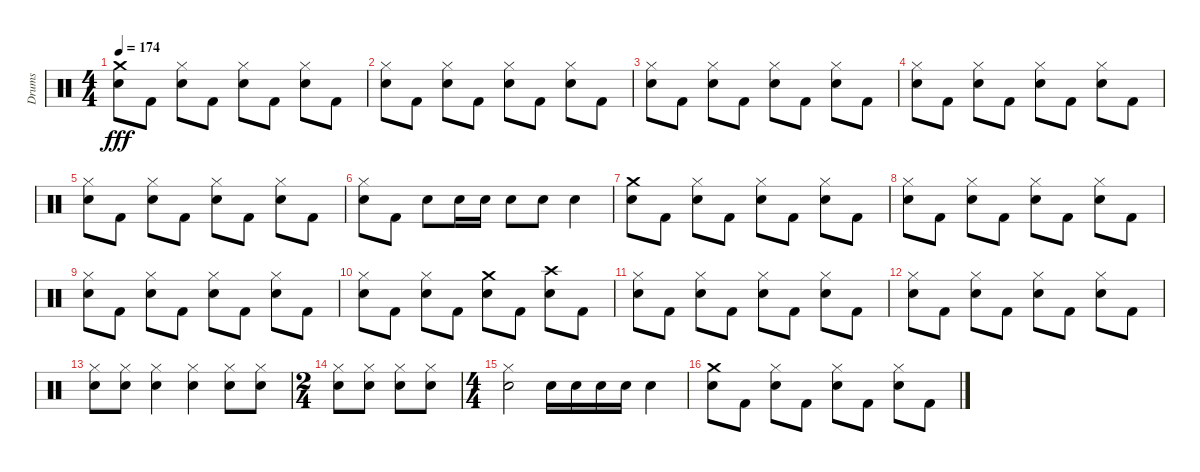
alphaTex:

\track ("Drums" "Drums") {instrument percussion}
\staff {score}
\articulation defaults
\ts (4 4)
\tempo 174
\clef neutral
\ks c
("Crash medium (hit)" "Electric Snare (hit)").8{dy fff} "Kick (hit) 2".8 ("Hi-Hat (closed)" "Electric Snare (hit)").8 "Kick (hit) 2".8 ("Hi-Hat (closed)" "Electric Snare (hit)").8 "Kick (hit) 2".8 ("Hi-Hat (closed)" "Electric Snare (hit)").8 "Kick (hit) 2".8 |
("Hi-Hat (closed)" "Electric Snare (hit)").8 "Kick (hit) 2".8 ("Hi-Hat (closed)" "Electric Snare (hit)").8 "Kick (hit) 2".8 ("Hi-Hat (closed)" "Electric Snare (hit)").8 "Kick (hit) 2".8 ("Hi-Hat (closed)" "Electric Snare (hit)").8 "Kick (hit) 2".8 |
("Hi-Hat (closed)" "Electric Snare (hit)").8 "Kick (hit) 2".8 ("Hi-Hat (closed)" "Electric Snare (hit)").8 "Kick (hit) 2".8 ("Hi-Hat (closed)" "Electric Snare (hit)").8 "Kick (hit) 2".8 ("Hi-Hat (closed)" "Electric Snare (hit)").8 "Kick (hit) 2".8 |
("Hi-Hat (closed)" "Electric Snare (hit)").8 "Kick (hit) 2".8 ("Hi-Hat (closed)" "Electric Snare (hit)").8 "Kick (hit) 2".8 ("Hi-Hat (closed)" "Electric Snare (hit)").8 "Kick (hit) 2".8 ("Hi-Hat (closed)" "Electric Snare (hit)").8 "Kick (hit) 2".8 |
("Hi-Hat (closed)" "Electric Snare (hit)").8 "Kick (hit) 2".8 ("Hi-Hat (closed)" "Electric Snare (hit)").8 "Kick (hit) 2".8 ("Hi-Hat (closed)" "Electric Snare (hit)").8 "Kick (hit) 2".8 ("Hi-Hat (closed)" "Electric Snare (hit)").8 "Kick (hit) 2".8 |
("Hi-Hat (closed)" "Electric Snare (hit)").8 "Kick (hit) 2".8 "Electric Snare (hit)".8 "Electric Snare (hit)".16 "Electric Snare (hit)".16 "Electric Snare (hit)".8 "Electric Snare (hit)".8 "Electric Snare (hit)".4 |
("Crash medium (hit)" "Electric Snare (hit)").8 "Kick (hit) 2".8 ("Hi-Hat (closed)" "Electric Snare (hit)").8 "Kick (hit) 2".8 ("Hi-Hat (closed)" "Electric Snare (hit)").8 "Kick (hit) 2".8 ("Hi-Hat (closed)" "Electric Snare (hit)").8 "Kick (hit) 2".8 |
("Hi-Hat (closed)" "Electric Snare (hit)").8 "Kick (hit) 2".8 ("Hi-Hat (closed)" "Electric Snare (hit)").8 "Kick (hit) 2".8 ("Hi-Hat (closed)" "Electric Snare (hit)").8 "Kick (hit) 2".8 ("Hi-Hat (closed)" "Electric Snare (hit)").8 "Kick (hit) 2".8 |
("Hi-Hat (closed)" "Electric Snare (hit)").8 "Kick (hit) 2".8 ("Hi-Hat (closed)" "Electric Snare (hit)").8 "Kick (hit) 2".8 ("Hi-Hat (closed)" "Electric Snare (hit)").8 "Kick (hit) 2".8 ("Hi-Hat (closed)" "Electric Snare (hit)").8 "Kick (hit) 2".8 |
("Hi-Hat (closed)" "Electric Snare (hit)").8 "Kick (hit) 2".8 ("Hi-Hat (closed)" "Electric Snare (hit)").8 "Kick (hit) 2".8 ("Crash medium (hit)" "Electric Snare (hit)").8 "Kick (hit) 2".8 ("Crash high (hit)" "Electric Snare (hit)").8 "Kick (hit) 2".8 |
("Hi-Hat (closed)" "Electric Snare (hit)").8 "Kick (hit) 2".8 ("Hi-Hat (closed)" "Electric Snare (hit)").8 "Kick (hit) 2".8 ("Hi-Hat (closed)" "Electric Snare (hit)").8 "Kick (hit) 2".8 ("Hi-Hat (closed)" "Electric Snare (hit)").8 "Kick (hit) 2".8 |
("Hi-Hat (closed)" "Electric Snare (hit)").8 "Kick (hit) 2".8 ("Hi-Hat (closed)" "Electric Snare (hit)").8 "Kick (hit) 2".8 ("Hi-Hat (closed)" "Electric Snare (hit)").8 "Kick (hit) 2".8 ("Hi-Hat (closed)" "Electric Snare (hit)").8 "Kick (hit) 2".8 |
("Hi-Hat (closed)" "Electric Snare (hit)").8 ("Hi-Hat (closed)" "Electric Snare (hit)").8 ("Hi-Hat (closed)" "Electric Snare (hit)").4 ("Hi-Hat (closed)" "Electric Snare (hit)").4 ("Hi-Hat (closed)" "Electric Snare (hit)").8 ("Hi-Hat (closed)" "Electric Snare (hit)").8 |
\ts (2 4)
("Hi-Hat (closed)" "Electric Snare (hit)").8 ("Hi-Hat (closed)" "Electric Snare (hit)").8 ("Hi-Hat (closed)" "Electric Snare (hit)").8 ("Hi-Hat (closed)" "Electric Snare (hit)").8 |
\ts (4 4)
("Hi-Hat (closed)" "Electric Snare (hit)").2 "Electric Snare (hit)".16 "Electric Snare (hit)".16 "Electric Snare (hit)".16 "Electric Snare (hit)".16 "Electric Snare (hit)".4 |
("Crash medium (hit)" "Electric Snare (hit)").8 "Kick (hit) 2".8 ("Hi-Hat (closed)" "Electric Snare (hit)").8 "Kick (hit) 2".8 ("Hi-Hat (closed)" "Electric Snare (hit)").8 "Kick (hit) 2".8 ("Hi-Hat (closed)" "Electric Snare (hit)").8 "Kick (hit) 2".8
